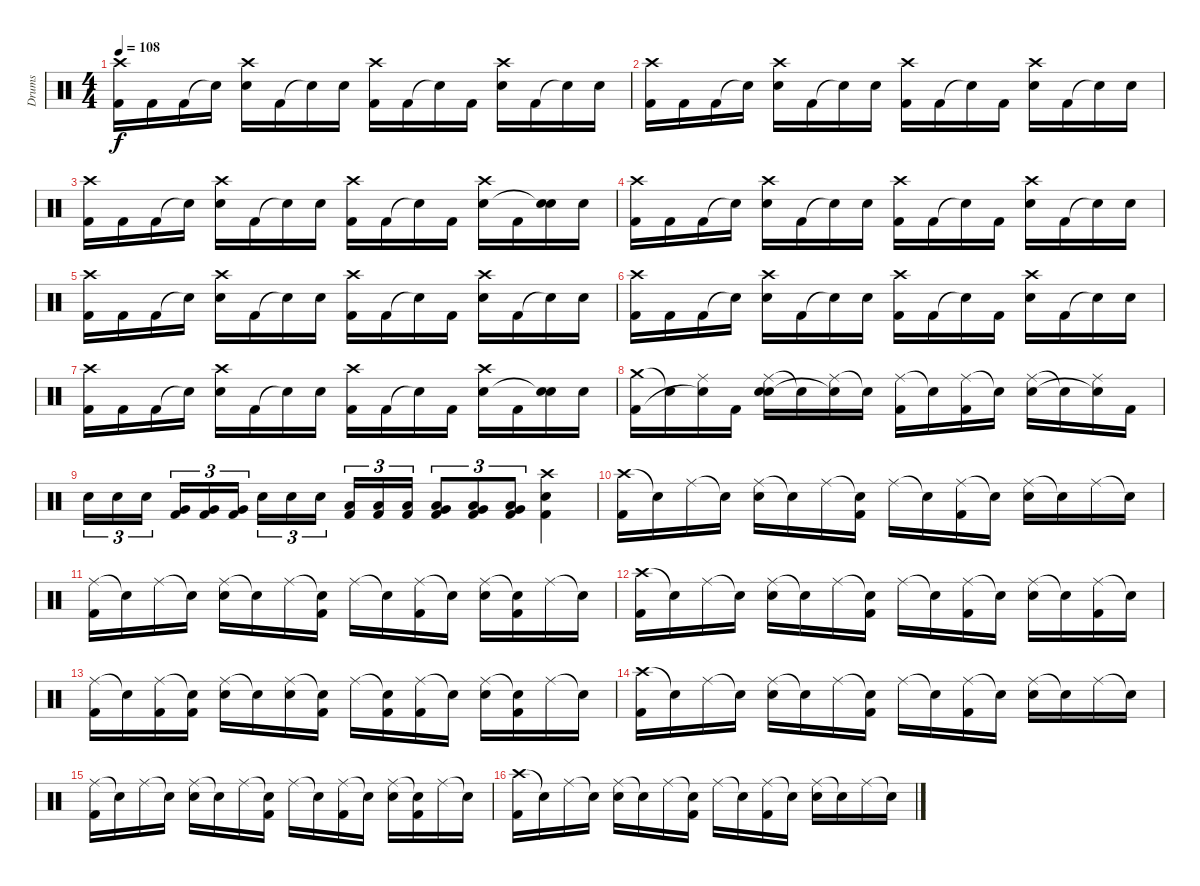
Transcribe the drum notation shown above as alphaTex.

\track ("Drums" "Drums") {instrument percussion}
\staff {score}
\articulation defaults
\ts (4 4)
\tempo 108
\clef neutral
\ks c
("Crash high (hit)" "Kick (hit) 2").16{dy f} "Kick (hit) 2".16 "Kick (hit) 2".16 "Snare (hit)"{t}.16 ("Crash high (hit)" "Electric Snare (hit)").16 "Kick (hit) 2".16 "Snare (hit)"{t}.16 "Electric Snare (hit)".16 ("Crash high (hit)" "Kick (hit) 2").16 "Kick (hit) 2".16 "Snare (hit)"{t}.16 "Kick (hit) 2".16 ("Crash high (hit)" "Electric Snare (hit)").16 "Kick (hit) 2".16 "Snare (hit)"{t}.16 "Electric Snare (hit)".16 |
("Crash high (hit)" "Kick (hit) 2").16 "Kick (hit) 2".16 "Kick (hit) 2".16 "Snare (hit)"{t}.16 ("Crash high (hit)" "Electric Snare (hit)").16 "Kick (hit) 2".16 "Snare (hit)"{t}.16 "Electric Snare (hit)".16 ("Crash high (hit)" "Kick (hit) 2").16 "Kick (hit) 2".16 "Snare (hit)"{t}.16 "Kick (hit) 2".16 ("Crash high (hit)" "Electric Snare (hit)").16 "Kick (hit) 2".16 "Snare (hit)"{t}.16 "Electric Snare (hit)".16 |
("Crash high (hit)" "Kick (hit) 2").16 "Kick (hit) 2".16 "Kick (hit) 2".16 "Snare (hit)"{t}.16 ("Crash high (hit)" "Electric Snare (hit)").16 "Kick (hit) 2".16 "Snare (hit)"{t}.16 "Electric Snare (hit)".16 ("Crash high (hit)" "Kick (hit) 2").16 "Kick (hit) 2".16 "Snare (hit)"{t}.16 "Kick (hit) 2".16 ("Crash high (hit)" "Electric Snare (hit)").16 "Kick (hit) 2".16 ("Electric Snare (hit)" "Snare (hit)"{t}).16 "Electric Snare (hit)".16 |
("Crash high (hit)" "Kick (hit) 2").16 "Kick (hit) 2".16 "Kick (hit) 2".16 "Snare (hit)"{t}.16 ("Crash high (hit)" "Electric Snare (hit)").16 "Kick (hit) 2".16 "Snare (hit)"{t}.16 "Electric Snare (hit)".16 ("Crash high (hit)" "Kick (hit) 2").16 "Kick (hit) 2".16 "Snare (hit)"{t}.16 "Kick (hit) 2".16 ("Crash high (hit)" "Electric Snare (hit)").16 "Kick (hit) 2".16 "Snare (hit)"{t}.16 "Electric Snare (hit)".16 |
("Crash high (hit)" "Kick (hit) 2").16 "Kick (hit) 2".16 "Kick (hit) 2".16 "Snare (hit)"{t}.16 ("Crash high (hit)" "Electric Snare (hit)").16 "Kick (hit) 2".16 "Snare (hit)"{t}.16 "Electric Snare (hit)".16 ("Crash high (hit)" "Kick (hit) 2").16 "Kick (hit) 2".16 "Snare (hit)"{t}.16 "Kick (hit) 2".16 ("Crash high (hit)" "Electric Snare (hit)").16 "Kick (hit) 2".16 "Snare (hit)"{t}.16 "Electric Snare (hit)".16 |
("Crash high (hit)" "Kick (hit) 2").16 "Kick (hit) 2".16 "Kick (hit) 2".16 "Snare (hit)"{t}.16 ("Crash high (hit)" "Electric Snare (hit)").16 "Kick (hit) 2".16 "Snare (hit)"{t}.16 "Electric Snare (hit)".16 ("Crash high (hit)" "Kick (hit) 2").16 "Kick (hit) 2".16 "Snare (hit)"{t}.16 "Kick (hit) 2".16 ("Crash high (hit)" "Electric Snare (hit)").16 "Kick (hit) 2".16 "Snare (hit)"{t}.16 "Electric Snare (hit)".16 |
("Crash high (hit)" "Kick (hit) 2").16 "Kick (hit) 2".16 "Kick (hit) 2".16 "Snare (hit)"{t}.16 ("Crash high (hit)" "Electric Snare (hit)").16 "Kick (hit) 2".16 "Snare (hit)"{t}.16 "Electric Snare (hit)".16 ("Crash high (hit)" "Kick (hit) 2").16 "Kick (hit) 2".16 "Snare (hit)"{t}.16 "Kick (hit) 2".16 ("Crash high (hit)" "Electric Snare (hit)").16 "Kick (hit) 2".16 ("Electric Snare (hit)" "Snare (hit)"{t}).16 "Electric Snare (hit)".16 |
("Crash medium (hit)" "Kick (hit) 2").16 "Snare (hit)"{t}.16 ("Ride (middle)" "Snare (hit)"{t}).16 "Kick (hit) 2".16 ("Ride (middle)" "Electric Snare (hit)" "Snare (hit)").16 "Snare (hit)"{t}.16 ("Ride (middle)" "Snare (hit)"{t}).16 "Snare (hit)"{t}.16 ("Ride (middle)" "Kick (hit) 2").16 "Snare (hit)"{t}.16 ("Ride (middle)" "Kick (hit) 2").16 "Snare (hit)"{t}.16 ("Ride (middle)" "Electric Snare (hit)").16 "Snare (hit)"{t}.16 ("Ride (middle)" "Snare (hit)"{t}).16 "Kick (hit) 2".16 |
"Electric Snare (hit)".16{tu (3 2)} "Electric Snare (hit)".16{tu (3 2)} "Electric Snare (hit)".16{tu (3 2)} ("Very Low Tom (hit)" "Kick (hit) 2").16{tu (3 2)} ("Very Low Tom (hit)" "Kick (hit) 2").16{tu (3 2)} ("Very Low Tom (hit)" "Kick (hit) 2").16{tu (3 2)} "Electric Snare (hit)".16{tu (3 2)} "Electric Snare (hit)".16{tu (3 2)} "Electric Snare (hit)".16{tu (3 2)} ("Low Tom (hit)" "Kick (hit) 2").16{tu (3 2)} ("Low Tom (hit)" "Kick (hit) 2").16{tu (3 2)} ("Low Tom (hit)" "Kick (hit) 2").16{tu (3 2)} ("Low Floor Tom (hit)" "Very Low Tom (hit)" "Kick (hit) 2").8{tu (3 2)} ("Low Floor Tom (hit)" "Very Low Tom (hit)" "Kick (hit) 2").8{tu (3 2)} ("Low Floor Tom (hit)" "Very Low Tom (hit)" "Kick (hit) 2").8{tu (3 2)} ("Crash high (hit)" "Electric Snare (hit)" "Kick (hit) 2").4 |
("Crash high (hit)" "Kick (hit) 2").16 "Snare (hit)"{t}.16 "Ride (middle)".16 "Snare (hit)"{t}.16 ("Ride (middle)" "Electric Snare (hit)").16 "Snare (hit)"{t}.16 "Ride (middle)".16 ("Snare (hit)"{t} "Kick (hit) 2").16 "Ride (middle)".16 "Snare (hit)"{t}.16 ("Ride (middle)" "Kick (hit) 2").16 "Snare (hit)"{t}.16 ("Ride (middle)" "Electric Snare (hit)").16 "Snare (hit)"{t}.16 "Ride (middle)".16 "Snare (hit)"{t}.16 |
("Ride (middle)" "Kick (hit) 2").16 "Snare (hit)"{t}.16 "Ride (middle)".16 "Snare (hit)"{t}.16 ("Ride (middle)" "Electric Snare (hit)").16 "Snare (hit)"{t}.16 "Ride (middle)".16 ("Snare (hit)"{t} "Kick (hit) 2").16 "Ride (middle)".16 "Snare (hit)"{t}.16 ("Ride (middle)" "Kick (hit) 2").16 "Snare (hit)"{t}.16 ("Ride (middle)" "Electric Snare (hit)").16 ("Snare (hit)"{t} "Kick (hit) 2").16 "Ride (middle)".16 "Snare (hit)"{t}.16 |
("Crash high (hit)" "Kick (hit) 2").16 "Snare (hit)"{t}.16 "Ride (middle)".16 "Snare (hit)"{t}.16 ("Ride (middle)" "Electric Snare (hit)").16 "Snare (hit)"{t}.16 "Ride (middle)".16 ("Snare (hit)"{t} "Kick (hit) 2").16 "Ride (middle)".16 "Snare (hit)"{t}.16 ("Ride (middle)" "Kick (hit) 2").16 "Snare (hit)"{t}.16 ("Ride (middle)" "Electric Snare (hit)").16 "Snare (hit)"{t}.16 ("Ride (middle)" "Kick (hit) 2").16 "Snare (hit)"{t}.16 |
("Ride (middle)" "Kick (hit) 2").16 "Snare (hit)"{t}.16 ("Ride (middle)" "Kick (hit) 2").16 ("Snare (hit)"{t} "Kick (hit) 2").16 ("Ride (middle)" "Electric Snare (hit)").16 "Snare (hit)"{t}.16 ("Ride (middle)" "Electric Snare (hit)").16 ("Snare (hit)"{t} "Kick (hit) 2").16 "Ride (middle)".16 ("Snare (hit)"{t} "Kick (hit) 2").16 ("Ride (middle)" "Kick (hit) 2").16 "Snare (hit)"{t}.16 ("Ride (middle)" "Electric Snare (hit)").16 ("Snare (hit)"{t} "Kick (hit) 2").16 "Ride (middle)".16 "Snare (hit)"{t}.16 |
("Crash high (hit)" "Kick (hit) 2").16 "Snare (hit)"{t}.16 "Ride (middle)".16 "Snare (hit)"{t}.16 ("Ride (middle)" "Electric Snare (hit)").16 "Snare (hit)"{t}.16 "Ride (middle)".16 ("Snare (hit)"{t} "Kick (hit) 2").16 "Ride (middle)".16 "Snare (hit)"{t}.16 ("Ride (middle)" "Kick (hit) 2").16 "Snare (hit)"{t}.16 ("Ride (middle)" "Electric Snare (hit)").16 "Snare (hit)"{t}.16 "Ride (middle)".16 "Snare (hit)"{t}.16 |
("Ride (middle)" "Kick (hit) 2").16 "Snare (hit)"{t}.16 "Ride (middle)".16 "Snare (hit)"{t}.16 ("Ride (middle)" "Electric Snare (hit)").16 "Snare (hit)"{t}.16 "Ride (middle)".16 ("Snare (hit)"{t} "Kick (hit) 2").16 "Ride (middle)".16 "Snare (hit)"{t}.16 ("Ride (middle)" "Kick (hit) 2").16 "Snare (hit)"{t}.16 ("Ride (middle)" "Electric Snare (hit)").16 ("Snare (hit)"{t} "Kick (hit) 2").16 "Ride (middle)".16 "Snare (hit)"{t}.16 |
("Crash high (hit)" "Kick (hit) 2").16 "Snare (hit)"{t}.16 "Ride (middle)".16 "Snare (hit)"{t}.16 ("Ride (middle)" "Electric Snare (hit)").16 "Snare (hit)"{t}.16 "Ride (middle)".16 ("Snare (hit)"{t} "Kick (hit) 2").16 "Ride (middle)".16 "Snare (hit)"{t}.16 ("Ride (middle)" "Kick (hit) 2").16 "Snare (hit)"{t}.16 ("Ride (middle)" "Electric Snare (hit)").16 "Snare (hit)"{t}.16 "Ride (middle)".16 "Snare (hit)"{t}.16
